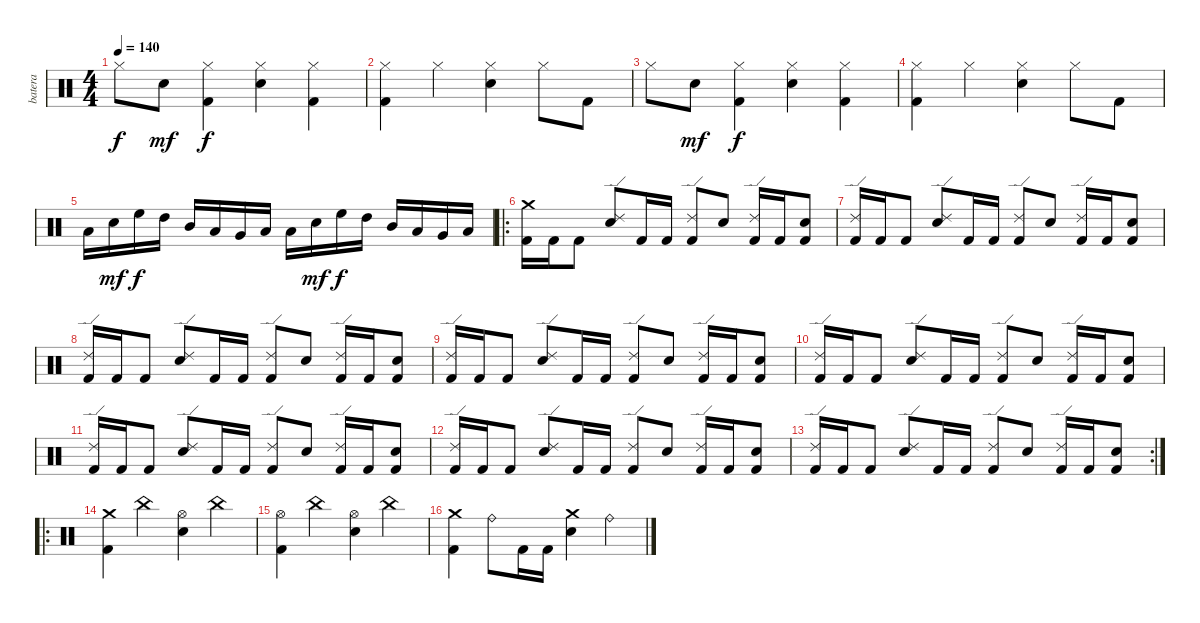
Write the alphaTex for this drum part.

\track ("batera" "batera") {instrument percussion}
\staff {score}
\articulation defaults
\ts (4 4)
\tempo 140
\clef neutral
\ks c "Hi-Hat (closed)".8{dy f} "Electric Snare (hit)".8{dy mf}
("Hi-Hat (closed)" "Kick (hit) 2").4{dy f} ("Hi-Hat (closed)" "Electric Snare (hit)").4 ("Hi-Hat (closed)" "Kick (hit) 2").4 |
("Hi-Hat (closed)" "Kick (hit) 2").4 "Hi-Hat (closed)".4 ("Hi-Hat (closed)" "Electric Snare (hit)").4 "Hi-Hat (closed)".8 "Kick (hit) 2".8 |
"Hi-Hat (closed)".8 "Electric Snare (hit)".8{dy mf} ("Hi-Hat (closed)" "Kick (hit) 2").4{dy f} ("Hi-Hat (closed)" "Electric Snare (hit)").4 ("Hi-Hat (closed)" "Kick (hit) 2").4 |
("Hi-Hat (closed)" "Kick (hit) 2").4 "Hi-Hat (closed)".4 ("Hi-Hat (closed)" "Electric Snare (hit)").4 "Hi-Hat (closed)".8 "Kick (hit) 2".8 |
"Low Floor Tom (hit)".16 "Electric Snare (hit)".16{dy mf} "High Floor Tom (hit)".16{dy f} "High Tom (hit)".16 "Mid Tom (hit)".16 "Low Tom (hit)".16 "Very Low Tom (hit)".16 "Low Floor Tom (hit)".16 "Low Floor Tom (hit)".16 "Electric Snare (hit)".16{dy mf} "High Floor Tom (hit)".16{dy f} "High Tom (hit)".16 "Mid Tom (hit)".16 "Low Tom (hit)".16 "Very Low Tom (hit)".16 "Low Floor Tom (hit)".16 |
\ro
("Crash medium (hit)" "Kick (hit) 2").16 "Kick (hit) 2".16 "Kick (hit) 2".8 ("Ride (edge) 2" "Electric Snare (hit)").8 "Kick (hit) 2".16 "Kick (hit) 2".16 ("Ride (edge) 2" "Kick (hit) 2").8 "Electric Snare (hit)".8 ("Ride (edge) 2" "Kick (hit) 2").16 "Kick (hit) 2".16 ("Electric Snare (hit)" "Kick (hit) 2").8 |
("Ride (edge) 2" "Kick (hit) 2").16 "Kick (hit) 2".16 "Kick (hit) 2".8 ("Ride (edge) 2" "Electric Snare (hit)").8 "Kick (hit) 2".16 "Kick (hit) 2".16 ("Ride (edge) 2" "Kick (hit) 2").8 "Electric Snare (hit)".8 ("Ride (edge) 2" "Kick (hit) 2").16 "Kick (hit) 2".16 ("Electric Snare (hit)" "Kick (hit) 2").8 |
("Ride (edge) 2" "Kick (hit) 2").16 "Kick (hit) 2".16 "Kick (hit) 2".8 ("Ride (edge) 2" "Electric Snare (hit)").8 "Kick (hit) 2".16 "Kick (hit) 2".16 ("Ride (edge) 2" "Kick (hit) 2").8 "Electric Snare (hit)".8 ("Ride (edge) 2" "Kick (hit) 2").16 "Kick (hit) 2".16 ("Electric Snare (hit)" "Kick (hit) 2").8 |
("Ride (edge) 2" "Kick (hit) 2").16 "Kick (hit) 2".16 "Kick (hit) 2".8 ("Ride (edge) 2" "Electric Snare (hit)").8 "Kick (hit) 2".16 "Kick (hit) 2".16 ("Ride (edge) 2" "Kick (hit) 2").8 "Electric Snare (hit)".8 ("Ride (edge) 2" "Kick (hit) 2").16 "Kick (hit) 2".16 ("Electric Snare (hit)" "Kick (hit) 2").8 |
("Ride (edge) 2" "Kick (hit) 2").16 "Kick (hit) 2".16 "Kick (hit) 2".8 ("Ride (edge) 2" "Electric Snare (hit)").8 "Kick (hit) 2".16 "Kick (hit) 2".16 ("Ride (edge) 2" "Kick (hit) 2").8 "Electric Snare (hit)".8 ("Ride (edge) 2" "Kick (hit) 2").16 "Kick (hit) 2".16 ("Electric Snare (hit)" "Kick (hit) 2").8 |
("Ride (edge) 2" "Kick (hit) 2").16 "Kick (hit) 2".16 "Kick (hit) 2".8 ("Ride (edge) 2" "Electric Snare (hit)").8 "Kick (hit) 2".16 "Kick (hit) 2".16 ("Ride (edge) 2" "Kick (hit) 2").8 "Electric Snare (hit)".8 ("Ride (edge) 2" "Kick (hit) 2").16 "Kick (hit) 2".16 ("Electric Snare (hit)" "Kick (hit) 2").8 |
("Ride (edge) 2" "Kick (hit) 2").16 "Kick (hit) 2".16 "Kick (hit) 2".8 ("Ride (edge) 2" "Electric Snare (hit)").8 "Kick (hit) 2".16 "Kick (hit) 2".16 ("Ride (edge) 2" "Kick (hit) 2").8 "Electric Snare (hit)".8 ("Ride (edge) 2" "Kick (hit) 2").16 "Kick (hit) 2".16 ("Electric Snare (hit)" "Kick (hit) 2").8 |
\rc 2
("Ride (edge) 2" "Kick (hit) 2").16 "Kick (hit) 2".16 "Kick (hit) 2".8 ("Ride (edge) 2" "Electric Snare (hit)").8 "Kick (hit) 2".16 "Kick (hit) 2".16 ("Ride (edge) 2" "Kick (hit) 2").8 "Electric Snare (hit)".8 ("Ride (edge) 2" "Kick (hit) 2").16 "Kick (hit) 2".16 ("Electric Snare (hit)" "Kick (hit) 2").8 |
\ro
("Crash medium (hit)" "Kick (hit) 2").4 "China (hit)".4 ("Hi-Hat (open)" "Electric Snare (hit)").4 "China (hit)".4 |
("Hi-Hat (open)" "Kick (hit) 2").4 "China (hit)".4 ("Hi-Hat (open)" "Electric Snare (hit)").4 "China (hit)".4 |
("Crash medium (hit)" "Kick (hit) 2").4 "Ride (bell)".8 "Kick (hit) 2".16 "Kick (hit) 2".16 ("Crash medium (hit)" "Electric Snare (hit)").4 "Ride (bell)".4
